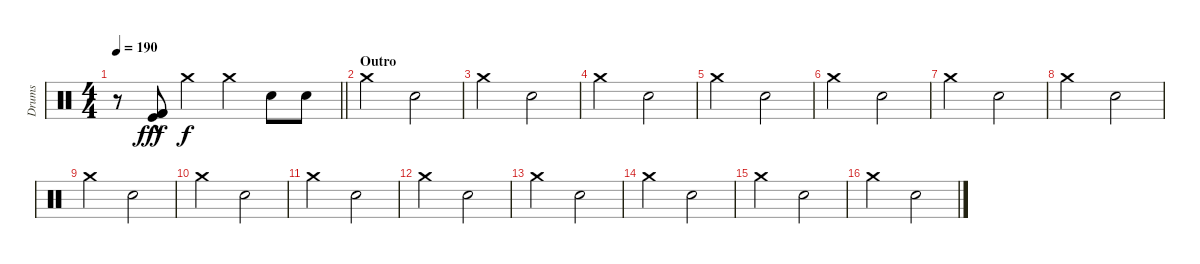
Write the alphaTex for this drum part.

\track ("Drums" "Drums") {instrument percussion}
\staff {score}
\articulation defaults
\ts (4 4)
\tempo 190
\clef neutral
\barLineRight lightlight
\ks c
r.8{dy f} ("Kick (hit) 2"{hac} "Kick (hit)"{hac} "Kick (hit) 2"{hac}).8{dy fff} "Crash medium (hit)".4{dy f} "Crash medium (hit)".4 "Snare (hit) 2".8 "Snare (hit) 2".8 |
\section ("" "Outro")
"Crash medium (hit)".2 "Snare (hit) 2".2 |
"Crash medium (hit)".2 "Snare (hit) 2".2 |
"Crash medium (hit)".2 "Snare (hit) 2".2 |
"Crash medium (hit)".2 "Snare (hit) 2".2 |
"Crash medium (hit)".2 "Snare (hit) 2".2 |
"Crash medium (hit)".2 "Snare (hit) 2".2 |
"Crash medium (hit)".2 "Snare (hit) 2".2 |
"Crash medium (hit)".2 "Snare (hit) 2".2 |
"Crash medium (hit)".2 "Snare (hit) 2".2 |
"Crash medium (hit)".2 "Snare (hit) 2".2 |
"Crash medium (hit)".2 "Snare (hit) 2".2 |
"Crash medium (hit)".2 "Snare (hit) 2".2 |
"Crash medium (hit)".2 "Snare (hit) 2".2 |
"Crash medium (hit)".2 "Snare (hit) 2".2 |
"Crash medium (hit)".2 "Snare (hit) 2".2
